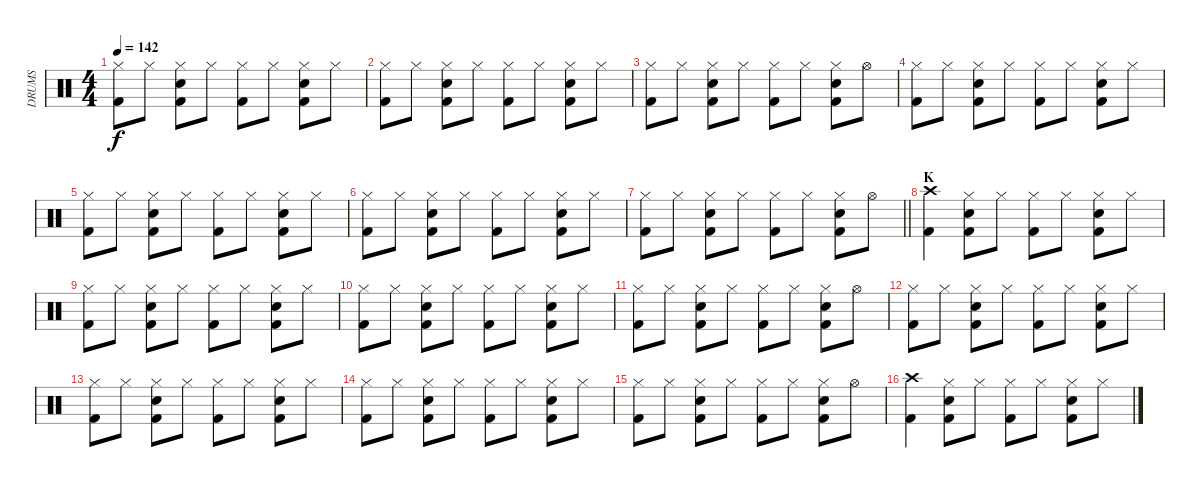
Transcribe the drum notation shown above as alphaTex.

\track ("DRUMS" "DRUMS") {instrument percussion}
\staff {score}
\articulation defaults
\ts (4 4)
\tempo 142
\clef neutral
\ks c
("Hi-Hat (closed)" "Kick (hit) 2").8{dy f} "Hi-Hat (closed)".8 ("Hi-Hat (closed)" "Snare (hit) 2" "Kick (hit) 2").8 "Hi-Hat (closed)".8 ("Hi-Hat (closed)" "Kick (hit) 2").8 "Hi-Hat (closed)".8 ("Hi-Hat (closed)" "Snare (hit) 2" "Kick (hit) 2").8 "Hi-Hat (closed)".8 |
("Hi-Hat (closed)" "Kick (hit) 2").8 "Hi-Hat (closed)".8 ("Hi-Hat (closed)" "Snare (hit) 2" "Kick (hit) 2").8 "Hi-Hat (closed)".8 ("Hi-Hat (closed)" "Kick (hit) 2").8 "Hi-Hat (closed)".8 ("Hi-Hat (closed)" "Snare (hit) 2" "Kick (hit) 2").8 "Hi-Hat (closed)".8 |
("Hi-Hat (closed)" "Kick (hit) 2").8 "Hi-Hat (closed)".8 ("Hi-Hat (closed)" "Snare (hit) 2" "Kick (hit) 2").8 "Hi-Hat (closed)".8 ("Hi-Hat (closed)" "Kick (hit) 2").8 "Hi-Hat (closed)".8 ("Hi-Hat (closed)" "Snare (hit) 2" "Kick (hit) 2").8 "Hi-Hat (open)".8 |
("Hi-Hat (closed)" "Kick (hit) 2").8 "Hi-Hat (closed)".8 ("Hi-Hat (closed)" "Snare (hit) 2" "Kick (hit) 2").8 "Hi-Hat (closed)".8 ("Hi-Hat (closed)" "Kick (hit) 2").8 "Hi-Hat (closed)".8 ("Hi-Hat (closed)" "Snare (hit) 2" "Kick (hit) 2").8 "Hi-Hat (closed)".8 |
("Hi-Hat (closed)" "Kick (hit) 2").8 "Hi-Hat (closed)".8 ("Hi-Hat (closed)" "Snare (hit) 2" "Kick (hit) 2").8 "Hi-Hat (closed)".8 ("Hi-Hat (closed)" "Kick (hit) 2").8 "Hi-Hat (closed)".8 ("Hi-Hat (closed)" "Snare (hit) 2" "Kick (hit) 2").8 "Hi-Hat (closed)".8 |
("Hi-Hat (closed)" "Kick (hit) 2").8 "Hi-Hat (closed)".8 ("Hi-Hat (closed)" "Snare (hit) 2" "Kick (hit) 2").8 "Hi-Hat (closed)".8 ("Hi-Hat (closed)" "Kick (hit) 2").8 "Hi-Hat (closed)".8 ("Hi-Hat (closed)" "Snare (hit) 2" "Kick (hit) 2").8 "Hi-Hat (closed)".8 |
\barLineRight lightlight
("Hi-Hat (closed)" "Kick (hit) 2").8 "Hi-Hat (closed)".8 ("Hi-Hat (closed)" "Snare (hit) 2" "Kick (hit) 2").8 "Hi-Hat (closed)".8 ("Hi-Hat (closed)" "Kick (hit) 2").8 "Hi-Hat (closed)".8 ("Hi-Hat (closed)" "Snare (hit) 2" "Kick (hit) 2").8 "Hi-Hat (open)".8 |
\section ("" "K")
("Crash high (hit)" "Kick (hit) 2").4 ("Hi-Hat (closed)" "Snare (hit) 2" "Kick (hit) 2").8 "Hi-Hat (closed)".8 ("Hi-Hat (closed)" "Kick (hit) 2").8 "Hi-Hat (closed)".8 ("Hi-Hat (closed)" "Snare (hit) 2" "Kick (hit) 2").8 "Hi-Hat (closed)".8 |
("Hi-Hat (closed)" "Kick (hit) 2").8 "Hi-Hat (closed)".8 ("Hi-Hat (closed)" "Snare (hit) 2" "Kick (hit) 2").8 "Hi-Hat (closed)".8 ("Hi-Hat (closed)" "Kick (hit) 2").8 "Hi-Hat (closed)".8 ("Hi-Hat (closed)" "Snare (hit) 2" "Kick (hit) 2").8 "Hi-Hat (closed)".8 |
("Hi-Hat (closed)" "Kick (hit) 2").8 "Hi-Hat (closed)".8 ("Hi-Hat (closed)" "Snare (hit) 2" "Kick (hit) 2").8 "Hi-Hat (closed)".8 ("Hi-Hat (closed)" "Kick (hit) 2").8 "Hi-Hat (closed)".8 ("Hi-Hat (closed)" "Snare (hit) 2" "Kick (hit) 2").8 "Hi-Hat (closed)".8 |
("Hi-Hat (closed)" "Kick (hit) 2").8 "Hi-Hat (closed)".8 ("Hi-Hat (closed)" "Snare (hit) 2" "Kick (hit) 2").8 "Hi-Hat (closed)".8 ("Hi-Hat (closed)" "Kick (hit) 2").8 "Hi-Hat (closed)".8 ("Hi-Hat (closed)" "Snare (hit) 2" "Kick (hit) 2").8 "Hi-Hat (open)".8 |
("Hi-Hat (closed)" "Kick (hit) 2").8 "Hi-Hat (closed)".8 ("Hi-Hat (closed)" "Snare (hit) 2" "Kick (hit) 2").8 "Hi-Hat (closed)".8 ("Hi-Hat (closed)" "Kick (hit) 2").8 "Hi-Hat (closed)".8 ("Hi-Hat (closed)" "Snare (hit) 2" "Kick (hit) 2").8 "Hi-Hat (closed)".8 |
("Hi-Hat (closed)" "Kick (hit) 2").8 "Hi-Hat (closed)".8 ("Hi-Hat (closed)" "Snare (hit) 2" "Kick (hit) 2").8 "Hi-Hat (closed)".8 ("Hi-Hat (closed)" "Kick (hit) 2").8 "Hi-Hat (closed)".8 ("Hi-Hat (closed)" "Snare (hit) 2" "Kick (hit) 2").8 "Hi-Hat (closed)".8 |
("Hi-Hat (closed)" "Kick (hit) 2").8 "Hi-Hat (closed)".8 ("Hi-Hat (closed)" "Snare (hit) 2" "Kick (hit) 2").8 "Hi-Hat (closed)".8 ("Hi-Hat (closed)" "Kick (hit) 2").8 "Hi-Hat (closed)".8 ("Hi-Hat (closed)" "Snare (hit) 2" "Kick (hit) 2").8 "Hi-Hat (closed)".8 |
("Hi-Hat (closed)" "Kick (hit) 2").8 "Hi-Hat (closed)".8 ("Hi-Hat (closed)" "Snare (hit) 2" "Kick (hit) 2").8 "Hi-Hat (closed)".8 ("Hi-Hat (closed)" "Kick (hit) 2").8 "Hi-Hat (closed)".8 ("Hi-Hat (closed)" "Snare (hit) 2" "Kick (hit) 2").8 "Hi-Hat (open)".8 |
("Crash high (hit)" "Kick (hit) 2").4 ("Hi-Hat (closed)" "Snare (hit) 2" "Kick (hit) 2").8 "Hi-Hat (closed)".8 ("Hi-Hat (closed)" "Kick (hit) 2").8 "Hi-Hat (closed)".8 ("Hi-Hat (closed)" "Snare (hit) 2" "Kick (hit) 2").8 "Hi-Hat (closed)".8
